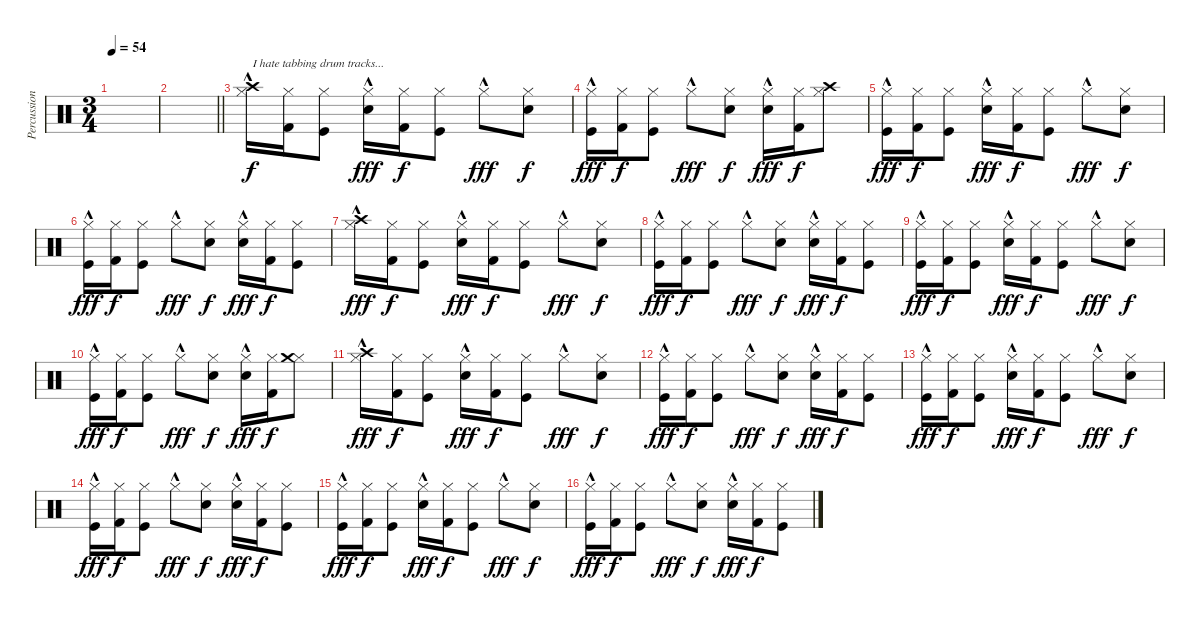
\track ("Percussion" "Percussion") {instrument percussion}
\staff {score}
\articulation defaults
\ts (3 4)
\tempo 54
\clef neutral
\ks c
|
\barLineRight lightlight
|
\section ("" " ")
("Hi-Hat (closed)"{hac} "Crash high (hit)").16{txt "I hate tabbing drum tracks..."} ("Hi-Hat (closed)" "Kick (hit) 2").16{dy f} ("Hi-Hat (closed)" "Kick (hit)").8 ("Hi-Hat (closed)"{hac} "Snare (hit) 2").16{dy fff} ("Hi-Hat (closed)" "Kick (hit) 2").16{dy f} ("Hi-Hat (closed)" "Kick (hit)").8 "Hi-Hat (closed)"{hac}.8{dy fff} ("Hi-Hat (closed)" "Snare (hit) 2").8{dy f} |
("Hi-Hat (closed)"{hac} "Kick (hit)").16{dy fff} ("Hi-Hat (closed)" "Kick (hit) 2").16{dy f} ("Hi-Hat (closed)" "Kick (hit)").8 "Hi-Hat (closed)"{hac}.8{dy fff} ("Hi-Hat (closed)" "Snare (hit) 2").8{dy f} ("Hi-Hat (closed)"{hac} "Snare (hit) 2").16{dy fff} ("Hi-Hat (closed)" "Kick (hit) 2").16{dy f} ("Hi-Hat (closed)" "Crash high (hit)").8 |
("Hi-Hat (closed)"{hac} "Kick (hit)").16{dy fff} ("Hi-Hat (closed)" "Kick (hit) 2").16{dy f} ("Hi-Hat (closed)" "Kick (hit)").8 ("Hi-Hat (closed)"{hac} "Snare (hit) 2").16{dy fff} ("Hi-Hat (closed)" "Kick (hit) 2").16{dy f} ("Hi-Hat (closed)" "Kick (hit)").8 "Hi-Hat (closed)"{hac}.8{dy fff} ("Hi-Hat (closed)" "Snare (hit) 2").8{dy f} |
("Hi-Hat (closed)"{hac} "Kick (hit)").16{dy fff} ("Hi-Hat (closed)" "Kick (hit) 2").16{dy f} ("Hi-Hat (closed)" "Kick (hit)").8 "Hi-Hat (closed)"{hac}.8{dy fff} ("Hi-Hat (closed)" "Snare (hit) 2").8{dy f} ("Hi-Hat (closed)"{hac} "Snare (hit) 2").16{dy fff} ("Hi-Hat (closed)" "Kick (hit) 2").16{dy f} ("Hi-Hat (closed)" "Kick (hit)").8 |
("Hi-Hat (closed)"{hac} "Crash high (hit)").16{dy fff} ("Hi-Hat (closed)" "Kick (hit) 2").16{dy f} ("Hi-Hat (closed)" "Kick (hit)").8 ("Hi-Hat (closed)"{hac} "Snare (hit) 2").16{dy fff} ("Hi-Hat (closed)" "Kick (hit) 2").16{dy f} ("Hi-Hat (closed)" "Kick (hit)").8 "Hi-Hat (closed)"{hac}.8{dy fff} ("Hi-Hat (closed)" "Snare (hit) 2").8{dy f} |
("Hi-Hat (closed)"{hac} "Kick (hit)").16{dy fff} ("Hi-Hat (closed)" "Kick (hit) 2").16{dy f} ("Hi-Hat (closed)" "Kick (hit)").8 "Hi-Hat (closed)"{hac}.8{dy fff} ("Hi-Hat (closed)" "Snare (hit) 2").8{dy f} ("Hi-Hat (closed)"{hac} "Snare (hit) 2").16{dy fff} ("Hi-Hat (closed)" "Kick (hit) 2").16{dy f} ("Hi-Hat (closed)" "Kick (hit)").8 |
("Hi-Hat (closed)"{hac} "Kick (hit)").16{dy fff} ("Hi-Hat (closed)" "Kick (hit) 2").16{dy f} ("Hi-Hat (closed)" "Kick (hit)").8 ("Hi-Hat (closed)"{hac} "Snare (hit) 2").16{dy fff} ("Hi-Hat (closed)" "Kick (hit) 2").16{dy f} ("Hi-Hat (closed)" "Kick (hit)").8 "Hi-Hat (closed)"{hac}.8{dy fff} ("Hi-Hat (closed)" "Snare (hit) 2").8{dy f} |
("Hi-Hat (closed)"{hac} "Kick (hit)").16{dy fff} ("Hi-Hat (closed)" "Kick (hit) 2").16{dy f} ("Hi-Hat (closed)" "Kick (hit)").8 "Hi-Hat (closed)"{hac}.8{dy fff} ("Hi-Hat (closed)" "Snare (hit) 2").8{dy f} ("Hi-Hat (closed)"{hac} "Snare (hit) 2").16{dy fff} ("Hi-Hat (closed)" "Kick (hit) 2").16{dy f} ("Hi-Hat (closed)" "Crash medium (hit)").8 |
("Hi-Hat (closed)"{hac} "Crash high (hit)").16{dy fff} ("Hi-Hat (closed)" "Kick (hit) 2").16{dy f} ("Hi-Hat (closed)" "Kick (hit)").8 ("Hi-Hat (closed)"{hac} "Snare (hit) 2").16{dy fff} ("Hi-Hat (closed)" "Kick (hit) 2").16{dy f} ("Hi-Hat (closed)" "Kick (hit)").8 "Hi-Hat (closed)"{hac}.8{dy fff} ("Hi-Hat (closed)" "Snare (hit) 2").8{dy f} |
("Hi-Hat (closed)"{hac} "Kick (hit)").16{dy fff} ("Hi-Hat (closed)" "Kick (hit) 2").16{dy f} ("Hi-Hat (closed)" "Kick (hit)").8 "Hi-Hat (closed)"{hac}.8{dy fff} ("Hi-Hat (closed)" "Snare (hit) 2").8{dy f} ("Hi-Hat (closed)"{hac} "Snare (hit) 2").16{dy fff} ("Hi-Hat (closed)" "Kick (hit) 2").16{dy f} ("Hi-Hat (closed)" "Kick (hit)").8 |
("Hi-Hat (closed)"{hac} "Kick (hit)").16{dy fff} ("Hi-Hat (closed)" "Kick (hit) 2").16{dy f} ("Hi-Hat (closed)" "Kick (hit)").8 ("Hi-Hat (closed)"{hac} "Snare (hit) 2").16{dy fff} ("Hi-Hat (closed)" "Kick (hit) 2").16{dy f} ("Hi-Hat (closed)" "Kick (hit)").8 "Hi-Hat (closed)"{hac}.8{dy fff} ("Hi-Hat (closed)" "Snare (hit) 2").8{dy f} |
("Hi-Hat (closed)"{hac} "Kick (hit)").16{dy fff} ("Hi-Hat (closed)" "Kick (hit) 2").16{dy f} ("Hi-Hat (closed)" "Kick (hit)").8 "Hi-Hat (closed)"{hac}.8{dy fff} ("Hi-Hat (closed)" "Snare (hit) 2").8{dy f} ("Hi-Hat (closed)"{hac} "Snare (hit) 2").16{dy fff} ("Hi-Hat (closed)" "Kick (hit) 2").16{dy f} ("Hi-Hat (closed)" "Kick (hit)").8 |
("Hi-Hat (closed)"{hac} "Kick (hit)").16{dy fff} ("Hi-Hat (closed)" "Kick (hit) 2").16{dy f} ("Hi-Hat (closed)" "Kick (hit)").8 ("Hi-Hat (closed)"{hac} "Snare (hit) 2").16{dy fff} ("Hi-Hat (closed)" "Kick (hit) 2").16{dy f} ("Hi-Hat (closed)" "Kick (hit)").8 "Hi-Hat (closed)"{hac}.8{dy fff} ("Hi-Hat (closed)" "Snare (hit) 2").8{dy f} |
("Hi-Hat (closed)"{hac} "Kick (hit)").16{dy fff} ("Hi-Hat (closed)" "Kick (hit) 2").16{dy f} ("Hi-Hat (closed)" "Kick (hit)").8 "Hi-Hat (closed)"{hac}.8{dy fff} ("Hi-Hat (closed)" "Snare (hit) 2").8{dy f} ("Hi-Hat (closed)"{hac} "Snare (hit) 2").16{dy fff} ("Hi-Hat (closed)" "Kick (hit) 2").16{dy f} ("Hi-Hat (closed)" "Kick (hit)").8
